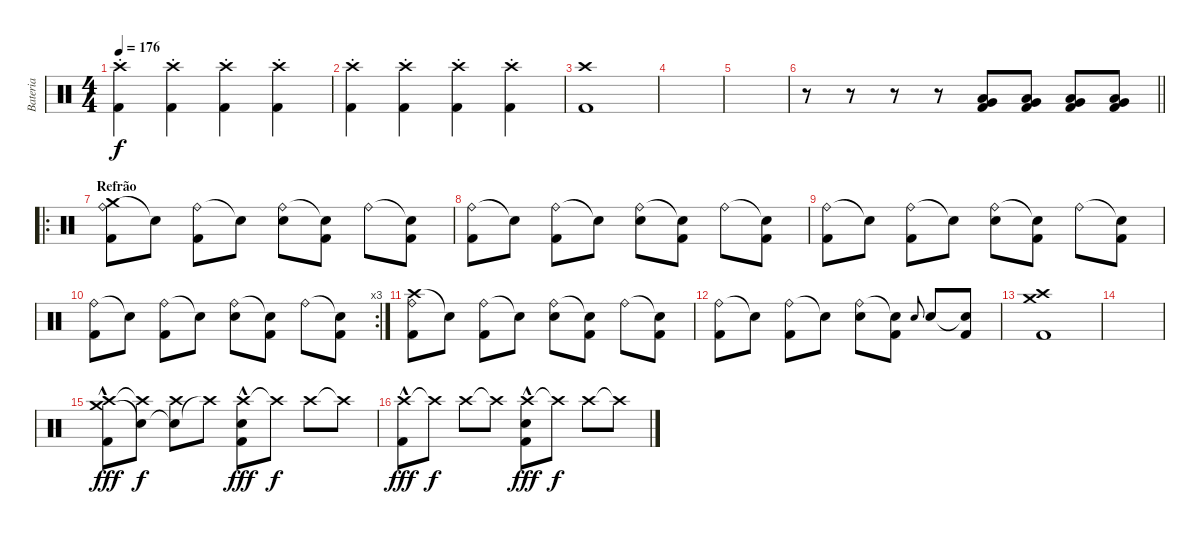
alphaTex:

\track ("Bateria" "Bateria") {instrument percussion}
\staff {score}
\articulation defaults
\ts (4 4)
\tempo 176
\clef neutral
\ks c
("Crash high (hit)"{st} "Kick (hit) 2").4{dy f} ("Crash high (hit)"{st} "Kick (hit) 2").4 ("Crash high (hit)"{st} "Kick (hit) 2").4 ("Crash high (hit)"{st} "Kick (hit) 2").4 |
("Crash high (hit)"{st} "Kick (hit) 2").4 ("Crash high (hit)"{st} "Kick (hit) 2").4 ("Crash high (hit)"{st} "Kick (hit) 2").4 ("Crash high (hit)"{st} "Kick (hit) 2").4 |
("Crash high (hit)" "Kick (hit) 2").1 |
|
|
\barLineRight lightlight
r.8 r.8 r.8 r.8 ("Very Low Tom (hit)" "Low Floor Tom (hit)" "Kick (hit) 2").8 ("Very Low Tom (hit)" "Low Floor Tom (hit)" "Kick (hit) 2").8 ("Very Low Tom (hit)" "Low Floor Tom (hit)" "Kick (hit) 2").8 ("Very Low Tom (hit)" "Low Floor Tom (hit)" "Kick (hit) 2").8 |
\ro
\section ("" "Refrão")
("Crash medium (hit)" "Ride (bell)" "Kick (hit) 2").8 "Snare (hit)"{t}.8 ("Ride (bell)" "Kick (hit) 2").8 "Snare (hit)"{t}.8 ("Ride (bell)" "Electric Snare (hit)").8 ("Snare (hit)"{t} "Kick (hit) 2").8 "Ride (bell)".8 ("Snare (hit)"{t} "Kick (hit) 2").8 |
("Ride (bell)" "Kick (hit) 2").8 "Snare (hit)"{t}.8 ("Ride (bell)" "Kick (hit) 2").8 "Snare (hit)"{t}.8 ("Ride (bell)" "Electric Snare (hit)").8 ("Snare (hit)"{t} "Kick (hit) 2").8 "Ride (bell)".8 ("Snare (hit)"{t} "Kick (hit) 2").8 |
("Ride (bell)" "Kick (hit) 2").8 "Snare (hit)"{t}.8 ("Ride (bell)" "Kick (hit) 2").8 "Snare (hit)"{t}.8 ("Ride (bell)" "Electric Snare (hit)").8 ("Snare (hit)"{t} "Kick (hit) 2").8 "Ride (bell)".8 ("Snare (hit)"{t} "Kick (hit) 2").8 |
\rc 3
("Ride (bell)" "Kick (hit) 2").8 "Snare (hit)"{t}.8 ("Ride (bell)" "Kick (hit) 2").8 "Snare (hit)"{t}.8 ("Ride (bell)" "Electric Snare (hit)").8 ("Snare (hit)"{t} "Kick (hit) 2").8 "Ride (bell)".8 ("Snare (hit)"{t} "Kick (hit) 2").8 |
("Crash high (hit)" "Ride (bell)" "Kick (hit) 2").8 "Snare (hit)"{t}.8 ("Ride (bell)" "Kick (hit) 2").8 "Snare (hit)"{t}.8 ("Ride (bell)" "Electric Snare (hit)").8 ("Snare (hit)"{t} "Kick (hit) 2").8 "Ride (bell)".8 ("Snare (hit)"{t} "Kick (hit) 2").8 |
("Ride (bell)" "Kick (hit) 2").8 "Snare (hit)"{t}.8 ("Ride (bell)" "Kick (hit) 2").8 "Snare (hit)"{t}.8 ("Ride (bell)" "Electric Snare (hit)").8 ("Snare (hit)"{t} "Kick (hit) 2").8 "Electric Snare (hit)".8{gr onbeat} "Electric Snare (hit)".8 ("Snare (hit)"{t} "Kick (hit) 2").8 |
("Crash medium (hit)" "Crash high (hit)" "Kick (hit) 2").1 |
|
("Crash medium (hit)" "Crash high (hit)" "Kick (hit) 2"{hac}).8{dy fff} ("Snare (hit)"{t} "Crash high (hit)"{t}).8{dy f} ("Snare (hit)"{t} "Crash high (hit)").8 "Crash high (hit)"{t}.8 ("Crash high (hit)" "Electric Snare (hit)"{hac} "Kick (hit) 2"{hac}).8{dy fff} "Crash high (hit)"{t}.8{dy f} "Crash high (hit)".8 "Crash high (hit)"{t}.8 |
("Crash high (hit)" "Kick (hit) 2"{hac}).8{dy fff} "Crash high (hit)"{t}.8{dy f} "Crash high (hit)".8 "Crash high (hit)"{t}.8 ("Crash high (hit)" "Electric Snare (hit)"{hac} "Kick (hit) 2"{hac}).8{dy fff} "Crash high (hit)"{t}.8{dy f} "Crash high (hit)".8 "Crash high (hit)"{t}.8
